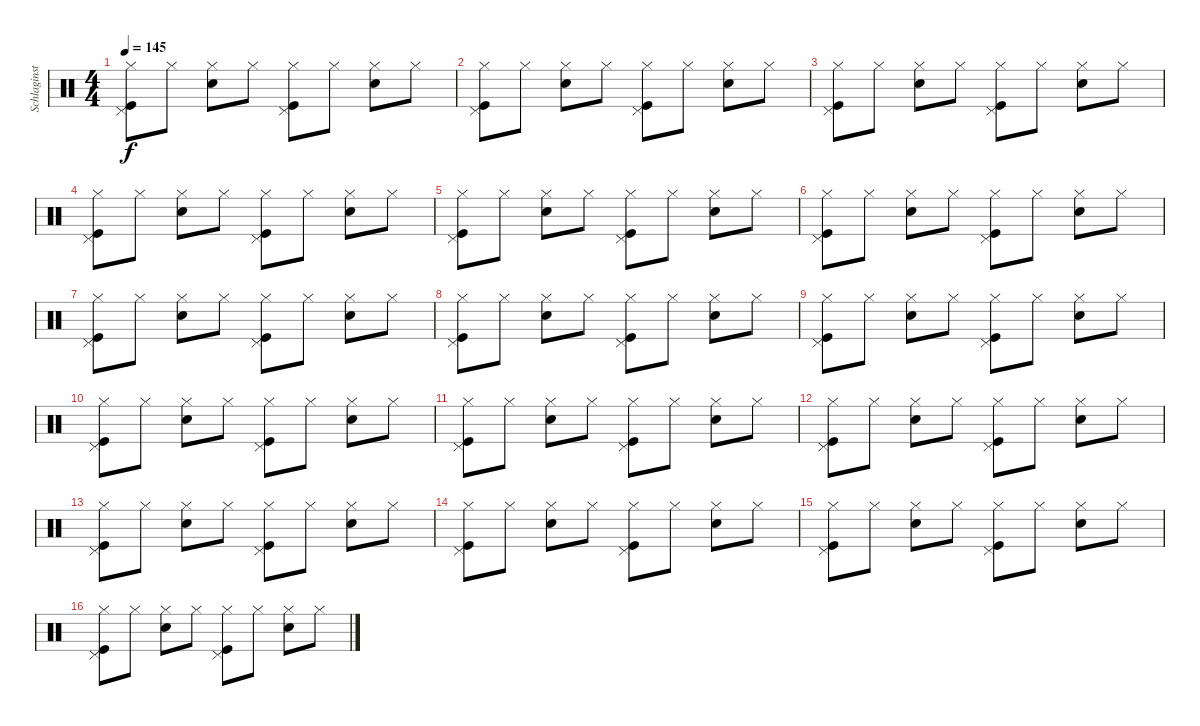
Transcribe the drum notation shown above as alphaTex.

\track ("Schlaginstrumente - Auswahl" "Schlaginst") {instrument percussion}
\staff {score}
\articulation defaults
\ts (4 4)
\tempo 145
\clef neutral
\ks c
("Kick (hit)" "Pedal Hi-Hat (hit)" "Hi-Hat (closed)").8{dy f} "Hi-Hat (closed)".8 ("Snare (hit) 2" "Hi-Hat (closed)").8 "Hi-Hat (closed)".8 ("Kick (hit)" "Pedal Hi-Hat (hit)" "Hi-Hat (closed)").8 "Hi-Hat (closed)".8 ("Snare (hit) 2" "Hi-Hat (closed)").8 "Hi-Hat (closed)".8 |
("Kick (hit)" "Pedal Hi-Hat (hit)" "Hi-Hat (closed)").8 "Hi-Hat (closed)".8 ("Snare (hit) 2" "Hi-Hat (closed)").8 "Hi-Hat (closed)".8 ("Kick (hit)" "Pedal Hi-Hat (hit)" "Hi-Hat (closed)").8 "Hi-Hat (closed)".8 ("Snare (hit) 2" "Hi-Hat (closed)").8 "Hi-Hat (closed)".8 |
("Kick (hit)" "Pedal Hi-Hat (hit)" "Hi-Hat (closed)").8 "Hi-Hat (closed)".8 ("Snare (hit) 2" "Hi-Hat (closed)").8 "Hi-Hat (closed)".8 ("Kick (hit)" "Pedal Hi-Hat (hit)" "Hi-Hat (closed)").8 "Hi-Hat (closed)".8 ("Snare (hit) 2" "Hi-Hat (closed)").8 "Hi-Hat (closed)".8 |
("Kick (hit)" "Pedal Hi-Hat (hit)" "Hi-Hat (closed)").8 "Hi-Hat (closed)".8 ("Snare (hit) 2" "Hi-Hat (closed)").8 "Hi-Hat (closed)".8 ("Kick (hit)" "Pedal Hi-Hat (hit)" "Hi-Hat (closed)").8 "Hi-Hat (closed)".8 ("Snare (hit) 2" "Hi-Hat (closed)").8 "Hi-Hat (closed)".8 |
("Kick (hit)" "Pedal Hi-Hat (hit)" "Hi-Hat (closed)").8 "Hi-Hat (closed)".8 ("Snare (hit) 2" "Hi-Hat (closed)").8 "Hi-Hat (closed)".8 ("Kick (hit)" "Pedal Hi-Hat (hit)" "Hi-Hat (closed)").8 "Hi-Hat (closed)".8 ("Snare (hit) 2" "Hi-Hat (closed)").8 "Hi-Hat (closed)".8 |
("Kick (hit)" "Pedal Hi-Hat (hit)" "Hi-Hat (closed)").8 "Hi-Hat (closed)".8 ("Snare (hit) 2" "Hi-Hat (closed)").8 "Hi-Hat (closed)".8 ("Kick (hit)" "Pedal Hi-Hat (hit)" "Hi-Hat (closed)").8 "Hi-Hat (closed)".8 ("Snare (hit) 2" "Hi-Hat (closed)").8 "Hi-Hat (closed)".8 |
("Kick (hit)" "Pedal Hi-Hat (hit)" "Hi-Hat (closed)").8 "Hi-Hat (closed)".8 ("Snare (hit) 2" "Hi-Hat (closed)").8 "Hi-Hat (closed)".8 ("Kick (hit)" "Pedal Hi-Hat (hit)" "Hi-Hat (closed)").8 "Hi-Hat (closed)".8 ("Snare (hit) 2" "Hi-Hat (closed)").8 "Hi-Hat (closed)".8 |
("Kick (hit)" "Pedal Hi-Hat (hit)" "Hi-Hat (closed)").8 "Hi-Hat (closed)".8 ("Snare (hit) 2" "Hi-Hat (closed)").8 "Hi-Hat (closed)".8 ("Kick (hit)" "Pedal Hi-Hat (hit)" "Hi-Hat (closed)").8 "Hi-Hat (closed)".8 ("Snare (hit) 2" "Hi-Hat (closed)").8 "Hi-Hat (closed)".8 |
("Kick (hit)" "Pedal Hi-Hat (hit)" "Hi-Hat (closed)").8 "Hi-Hat (closed)".8 ("Snare (hit) 2" "Hi-Hat (closed)").8 "Hi-Hat (closed)".8 ("Kick (hit)" "Pedal Hi-Hat (hit)" "Hi-Hat (closed)").8 "Hi-Hat (closed)".8 ("Snare (hit) 2" "Hi-Hat (closed)").8 "Hi-Hat (closed)".8 |
("Kick (hit)" "Pedal Hi-Hat (hit)" "Hi-Hat (closed)").8 "Hi-Hat (closed)".8 ("Snare (hit) 2" "Hi-Hat (closed)").8 "Hi-Hat (closed)".8 ("Kick (hit)" "Pedal Hi-Hat (hit)" "Hi-Hat (closed)").8 "Hi-Hat (closed)".8 ("Snare (hit) 2" "Hi-Hat (closed)").8 "Hi-Hat (closed)".8 |
("Kick (hit)" "Pedal Hi-Hat (hit)" "Hi-Hat (closed)").8 "Hi-Hat (closed)".8 ("Snare (hit) 2" "Hi-Hat (closed)").8 "Hi-Hat (closed)".8 ("Kick (hit)" "Pedal Hi-Hat (hit)" "Hi-Hat (closed)").8 "Hi-Hat (closed)".8 ("Snare (hit) 2" "Hi-Hat (closed)").8 "Hi-Hat (closed)".8 |
("Kick (hit)" "Pedal Hi-Hat (hit)" "Hi-Hat (closed)").8 "Hi-Hat (closed)".8 ("Snare (hit) 2" "Hi-Hat (closed)").8 "Hi-Hat (closed)".8 ("Kick (hit)" "Pedal Hi-Hat (hit)" "Hi-Hat (closed)").8 "Hi-Hat (closed)".8 ("Snare (hit) 2" "Hi-Hat (closed)").8 "Hi-Hat (closed)".8 |
("Kick (hit)" "Pedal Hi-Hat (hit)" "Hi-Hat (closed)").8 "Hi-Hat (closed)".8 ("Snare (hit) 2" "Hi-Hat (closed)").8 "Hi-Hat (closed)".8 ("Kick (hit)" "Pedal Hi-Hat (hit)" "Hi-Hat (closed)").8 "Hi-Hat (closed)".8 ("Snare (hit) 2" "Hi-Hat (closed)").8 "Hi-Hat (closed)".8 |
("Kick (hit)" "Pedal Hi-Hat (hit)" "Hi-Hat (closed)").8 "Hi-Hat (closed)".8 ("Snare (hit) 2" "Hi-Hat (closed)").8 "Hi-Hat (closed)".8 ("Kick (hit)" "Pedal Hi-Hat (hit)" "Hi-Hat (closed)").8 "Hi-Hat (closed)".8 ("Snare (hit) 2" "Hi-Hat (closed)").8 "Hi-Hat (closed)".8 |
("Kick (hit)" "Pedal Hi-Hat (hit)" "Hi-Hat (closed)").8 "Hi-Hat (closed)".8 ("Snare (hit) 2" "Hi-Hat (closed)").8 "Hi-Hat (closed)".8 ("Kick (hit)" "Pedal Hi-Hat (hit)" "Hi-Hat (closed)").8 "Hi-Hat (closed)".8 ("Snare (hit) 2" "Hi-Hat (closed)").8 "Hi-Hat (closed)".8 |
("Kick (hit)" "Pedal Hi-Hat (hit)" "Hi-Hat (closed)").8 "Hi-Hat (closed)".8 ("Snare (hit) 2" "Hi-Hat (closed)").8 "Hi-Hat (closed)".8 ("Kick (hit)" "Pedal Hi-Hat (hit)" "Hi-Hat (closed)").8 "Hi-Hat (closed)".8 ("Snare (hit) 2" "Hi-Hat (closed)").8 "Hi-Hat (closed)".8
